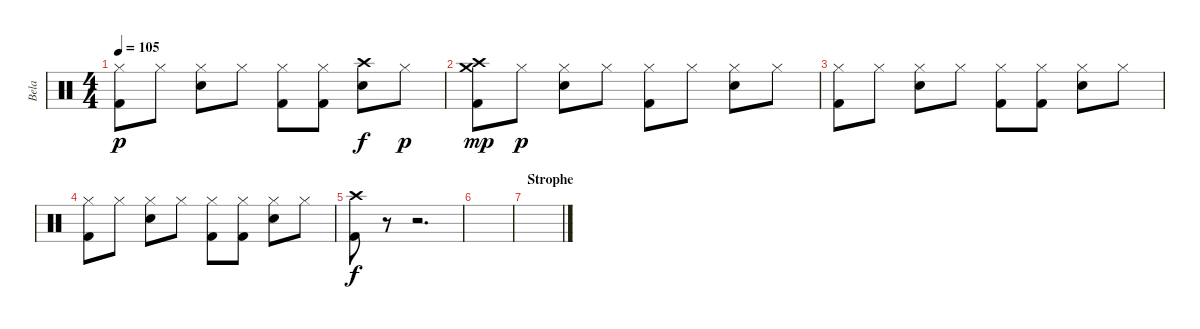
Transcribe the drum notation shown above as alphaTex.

\track ("Bela" "Bela") {instrument percussion}
\staff {score}
\articulation defaults
\ts (4 4)
\tempo 105
\clef neutral
\ks c
("Hi-Hat (closed)" "Kick (hit) 2").8{dy p} "Hi-Hat (closed)".8 ("Hi-Hat (closed)" "Snare (hit) 2").8 "Hi-Hat (closed)".8 ("Hi-Hat (closed)" "Kick (hit) 2").8 ("Hi-Hat (closed)" "Kick (hit) 2").8 ("Crash high (hit)" "Snare (hit) 2").8{dy f} "Hi-Hat (closed)".8{dy p} |
("Crash high (hit)" "Crash medium (hit)" "Kick (hit) 2").8{dy mp} "Hi-Hat (closed)".8{dy p} ("Hi-Hat (closed)" "Snare (hit) 2").8 "Hi-Hat (closed)".8 ("Hi-Hat (closed)" "Kick (hit) 2").8 "Hi-Hat (closed)".8 ("Hi-Hat (closed)" "Snare (hit) 2").8 "Hi-Hat (closed)".8 |
("Hi-Hat (closed)" "Kick (hit) 2").8 "Hi-Hat (closed)".8 ("Hi-Hat (closed)" "Snare (hit) 2").8 "Hi-Hat (closed)".8 ("Hi-Hat (closed)" "Kick (hit) 2").8 ("Hi-Hat (closed)" "Kick (hit) 2").8 ("Hi-Hat (closed)" "Snare (hit) 2").8 "Hi-Hat (closed)".8 |
("Hi-Hat (closed)" "Kick (hit) 2").8 "Hi-Hat (closed)".8 ("Hi-Hat (closed)" "Snare (hit) 2").8 "Hi-Hat (closed)".8 ("Hi-Hat (closed)" "Kick (hit) 2").8 ("Hi-Hat (closed)" "Kick (hit) 2").8 ("Hi-Hat (closed)" "Snare (hit) 2").8 "Hi-Hat (closed)".8 |
("Crash high (hit)" "Kick (hit) 2").8{dy f} r.8 r.2{d} |
|
\section ("" "Strophe")
